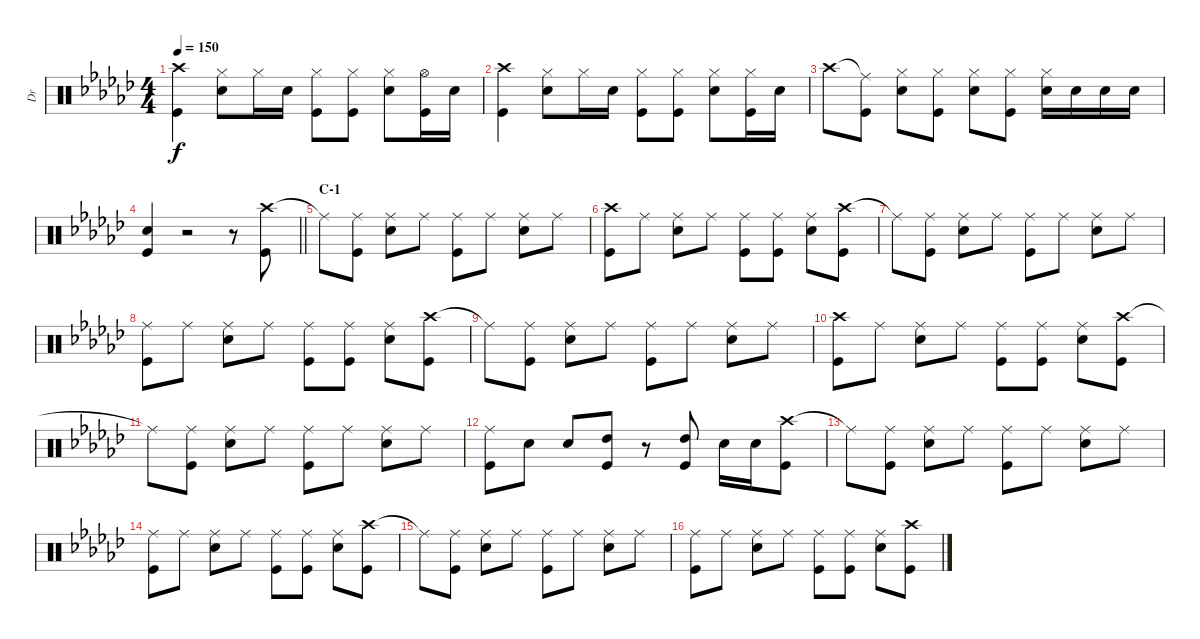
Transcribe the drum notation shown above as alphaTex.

\track ("Dr" "Dr") {instrument percussion}
\staff {score}
\articulation defaults
\ts (4 4)
\tempo 150
\clef neutral
\ks gb
("Crash high (hit)" "Kick (hit)").4{dy f} ("Hi-Hat (closed)" "Electric Snare (hit)").8 "Hi-Hat (closed)".16 "Electric Snare (hit)".16 ("Hi-Hat (closed)" "Kick (hit)").8 ("Hi-Hat (closed)" "Kick (hit)").8 ("Hi-Hat (closed)" "Electric Snare (hit)").8 ("Hi-Hat (open)" "Kick (hit)").16 "Electric Snare (hit)".16 |
("Crash high (hit)" "Kick (hit)").4 ("Hi-Hat (closed)" "Electric Snare (hit)").8 "Hi-Hat (closed)".16 "Electric Snare (hit)".16 ("Hi-Hat (closed)" "Kick (hit)").8 ("Hi-Hat (closed)" "Kick (hit)").8 ("Hi-Hat (closed)" "Electric Snare (hit)").8 ("Hi-Hat (closed)" "Kick (hit)").16 "Electric Snare (hit)".16 |
"Crash high (hit)".8 ("Ride (middle)"{t} "Kick (hit)").8 ("Hi-Hat (closed)" "Electric Snare (hit)").8 ("Hi-Hat (closed)" "Kick (hit)").8 ("Hi-Hat (closed)" "Electric Snare (hit)").8 ("Hi-Hat (closed)" "Kick (hit)").8 ("Hi-Hat (closed)" "Electric Snare (hit)").16 "Electric Snare (hit)".16 "Electric Snare (hit)".16 "Electric Snare (hit)".16 |
\barLineRight lightlight
("Electric Snare (hit)" "Kick (hit)").4 r.2 r.8 ("Crash high (hit)" "Kick (hit)").8 |
\section ("" "C-1")
"Ride (middle)"{t}.8 ("Ride (middle)" "Kick (hit)").8 ("Ride (middle)" "Electric Snare (hit)").8 "Ride (middle)".8 ("Ride (middle)" "Kick (hit)").8 "Ride (middle)".8 ("Ride (middle)" "Electric Snare (hit)").8 "Ride (middle)".8 |
("Crash high (hit)" "Kick (hit)").8 "Ride (middle)".8 ("Ride (middle)" "Electric Snare (hit)").8 "Ride (middle)".8 ("Ride (middle)" "Kick (hit)").8 ("Ride (middle)" "Kick (hit)").8 ("Ride (middle)" "Electric Snare (hit)").8 ("Crash high (hit)" "Kick (hit)").8 |
"Ride (middle)"{t}.8 ("Ride (middle)" "Kick (hit)").8 ("Ride (middle)" "Electric Snare (hit)").8 "Ride (middle)".8 ("Ride (middle)" "Kick (hit)").8 "Ride (middle)".8 ("Ride (middle)" "Electric Snare (hit)").8 "Ride (middle)".8 |
("Ride (middle)" "Kick (hit)").8 "Ride (middle)".8 ("Ride (middle)" "Electric Snare (hit)").8 "Ride (middle)".8 ("Ride (middle)" "Kick (hit)").8 ("Ride (middle)" "Kick (hit)").8 ("Ride (middle)" "Electric Snare (hit)").8 ("Crash high (hit)" "Kick (hit)").8 |
"Ride (middle)"{t}.8 ("Ride (middle)" "Kick (hit)").8 ("Ride (middle)" "Electric Snare (hit)").8 "Ride (middle)".8 ("Ride (middle)" "Kick (hit)").8 "Ride (middle)".8 ("Ride (middle)" "Electric Snare (hit)").8 "Ride (middle)".8 |
("Crash high (hit)" "Kick (hit)").8 "Ride (middle)".8 ("Ride (middle)" "Electric Snare (hit)").8 "Ride (middle)".8 ("Ride (middle)" "Kick (hit)").8 ("Ride (middle)" "Kick (hit)").8 ("Ride (middle)" "Electric Snare (hit)").8 ("Crash high (hit)" "Kick (hit)").8 |
"Ride (middle)"{t}.8 ("Ride (middle)" "Kick (hit)").8 ("Ride (middle)" "Electric Snare (hit)").8 "Ride (middle)".8 ("Ride (middle)" "Kick (hit)").8 "Ride (middle)".8 ("Ride (middle)" "Electric Snare (hit)").8 "Ride (middle)".8 |
("Ride (middle)" "Kick (hit)").8 "Electric Snare (hit)".8 "Electric Snare (hit)".8 ("High Tom (hit)" "Kick (hit)").8 r.8 ("High Tom (hit)" "Kick (hit)").8 "Electric Snare (hit)".16 "Electric Snare (hit)".16 ("Crash high (hit)" "Kick (hit)").8 |
"Ride (middle)"{t}.8 ("Ride (middle)" "Kick (hit)").8 ("Ride (middle)" "Electric Snare (hit)").8 "Ride (middle)".8 ("Ride (middle)" "Kick (hit)").8 "Ride (middle)".8 ("Ride (middle)" "Electric Snare (hit)").8 "Ride (middle)".8 |
("Ride (middle)" "Kick (hit)").8 "Ride (middle)".8 ("Ride (middle)" "Electric Snare (hit)").8 "Ride (middle)".8 ("Ride (middle)" "Kick (hit)").8 ("Ride (middle)" "Kick (hit)").8 ("Ride (middle)" "Electric Snare (hit)").8 ("Crash high (hit)" "Kick (hit)").8 |
"Ride (middle)"{t}.8 ("Ride (middle)" "Kick (hit)").8 ("Ride (middle)" "Electric Snare (hit)").8 "Ride (middle)".8 ("Ride (middle)" "Kick (hit)").8 "Ride (middle)".8 ("Ride (middle)" "Electric Snare (hit)").8 "Ride (middle)".8 |
("Ride (middle)" "Kick (hit)").8 "Ride (middle)".8 ("Ride (middle)" "Electric Snare (hit)").8 "Ride (middle)".8 ("Ride (middle)" "Kick (hit)").8 ("Ride (middle)" "Kick (hit)").8 ("Ride (middle)" "Electric Snare (hit)").8 ("Crash high (hit)" "Kick (hit)").8
